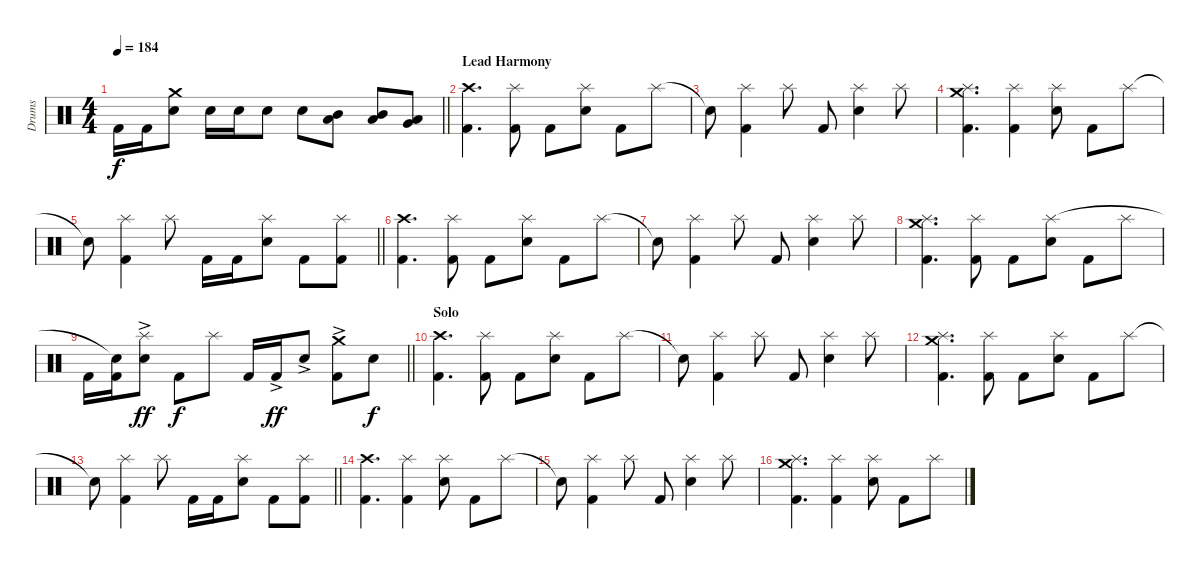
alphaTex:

\track ("Drums" "Drums") {instrument percussion}
\staff {score}
\articulation defaults
\ts (4 4)
\tempo 184
\clef neutral
\barLineRight lightlight
\ks c "Kick (hit) 2".16{dy f} "Kick (hit) 2".16
("Snare (hit) 2" "Crash medium (hit)").8 "Snare (hit) 2".16 "Snare (hit) 2".16 "Snare (hit) 2".8 "Snare (hit) 2".8 ("Mid Tom (hit)" "Low Tom (hit)").8 ("Mid Tom (hit)" "Low Tom (hit)").8 ("Low Tom (hit)" "Very Low Tom (hit)").8 |
\section ("" "Lead Harmony")
("Kick (hit) 2" "Crash high (hit)").4{d} ("Kick (hit) 2" "Splash (hit)").8 "Kick (hit) 2".8 ("Snare (hit) 2" "Splash (hit)").8 "Kick (hit) 2".8 "Splash (hit)".8 |
"Snare (hit)"{t}.8 ("Kick (hit) 2" "Splash (hit)").4 "Splash (hit)".8 "Kick (hit) 2".8 ("Snare (hit) 2" "Splash (hit)").4 "Splash (hit)".8 |
("Kick (hit) 2" "Splash (hit)" "Crash medium (hit)").4{d} ("Kick (hit) 2" "Splash (hit)").4 ("Snare (hit) 2" "Splash (hit)").8 "Kick (hit) 2".8 "Splash (hit)".8 |
\barLineRight lightlight "Snare (hit)"{t}.8
("Kick (hit) 2" "Splash (hit)").4 "Splash (hit)".8 "Kick (hit) 2".16 "Kick (hit) 2".16 ("Snare (hit) 2" "Splash (hit)").8 "Kick (hit) 2".8 ("Kick (hit) 2" "Splash (hit)").8 |
\section ("" "")
("Kick (hit) 2" "Crash high (hit)").4{d} ("Kick (hit) 2" "Splash (hit)").8 "Kick (hit) 2".8 ("Snare (hit) 2" "Splash (hit)").8 "Kick (hit) 2".8 "Splash (hit)".8 |
"Snare (hit)"{t}.8 ("Kick (hit) 2" "Splash (hit)").4 "Splash (hit)".8 "Kick (hit) 2".8 ("Snare (hit) 2" "Splash (hit)").4 "Splash (hit)".8 |
("Kick (hit) 2" "Splash (hit)" "Crash medium (hit)").4{d} ("Kick (hit) 2" "Splash (hit)").8 "Kick (hit) 2".8 ("Snare (hit) 2" "Splash (hit)").8 "Kick (hit) 2".8 "Splash (hit)".8 |
\barLineRight lightlight "Kick (hit) 2".16
("Kick (hit) 2" "Snare (hit)"{t}).16 ("Snare (hit) 2"{ac} "Splash (hit)").8{dy ff} "Kick (hit) 2".8{dy f} "Splash (hit)".8 "Kick (hit) 2".16 "Kick (hit) 2"{ac}.16{dy ff} "Snare (hit) 2"{ac}.8 ("Kick (hit) 2"{ac} "Crash medium (hit)").8 "Snare (hit) 2".8{dy f} |
\section ("" "Solo")
("Kick (hit) 2" "Crash high (hit)").4{d} ("Kick (hit) 2" "Splash (hit)").8 "Kick (hit) 2".8 ("Snare (hit) 2" "Splash (hit)").8 "Kick (hit) 2".8 "Splash (hit)".8 |
"Snare (hit)"{t}.8 ("Kick (hit) 2" "Splash (hit)").4 "Splash (hit)".8 "Kick (hit) 2".8 ("Snare (hit) 2" "Splash (hit)").4 "Splash (hit)".8 |
("Kick (hit) 2" "Splash (hit)" "Crash medium (hit)").4{d} ("Kick (hit) 2" "Splash (hit)").8 "Kick (hit) 2".8 ("Snare (hit) 2" "Splash (hit)").8 "Kick (hit) 2".8 "Splash (hit)".8 |
\barLineRight lightlight "Snare (hit)"{t}.8
("Kick (hit) 2" "Splash (hit)").4 "Splash (hit)".8 "Kick (hit) 2".16 "Kick (hit) 2".16 ("Snare (hit) 2" "Splash (hit)").8 "Kick (hit) 2".8 ("Kick (hit) 2" "Splash (hit)").8 |
\section ("" "")
("Kick (hit) 2" "Crash high (hit)").4{d} ("Kick (hit) 2" "Splash (hit)").4 ("Snare (hit) 2" "Splash (hit)").8 "Kick (hit) 2".8 "Splash (hit)".8 |
"Snare (hit)"{t}.8 ("Kick (hit) 2" "Splash (hit)").4 "Splash (hit)".8 "Kick (hit) 2".8 ("Snare (hit) 2" "Splash (hit)").4 "Splash (hit)".8 |
("Kick (hit) 2" "Splash (hit)" "Crash medium (hit)").4{d} ("Kick (hit) 2" "Splash (hit)").4 ("Snare (hit) 2" "Splash (hit)").8 "Kick (hit) 2".8 "Splash (hit)".8
